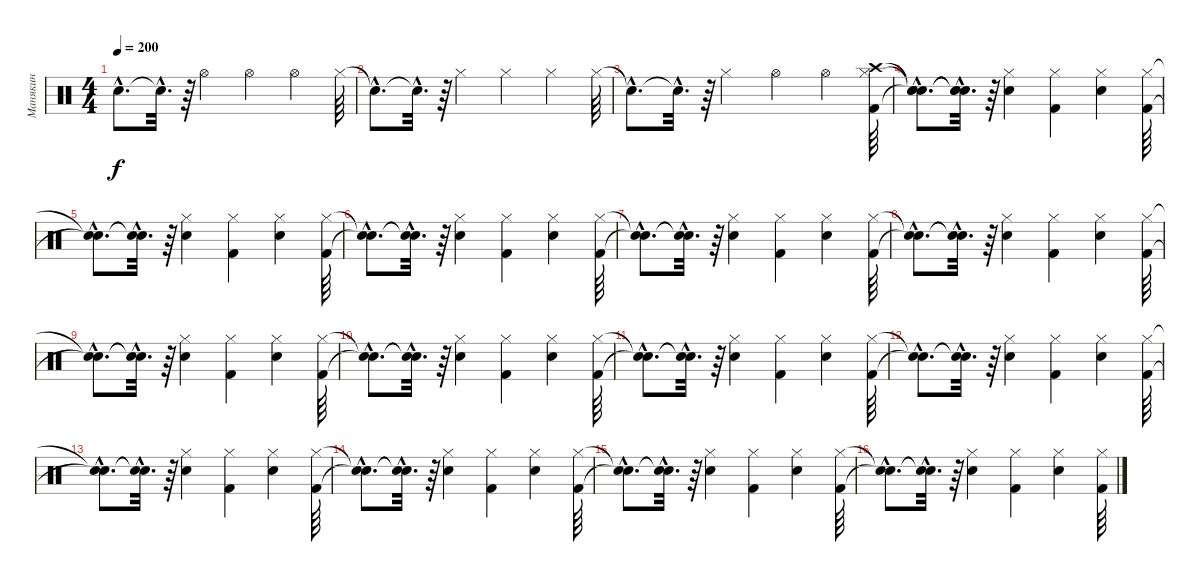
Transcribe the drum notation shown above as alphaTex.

\track ("Манякин" "Манякин") {instrument percussion}
\staff {score}
\articulation defaults
\ts (4 4)
\tempo 200
\clef neutral
\ks c "Snare (hit)"{hac t}.8{d dy f} "Snare (hit)"{hac t}.32{d}
r.64 "Hi-Hat (open)".4 "Hi-Hat (open)".4 "Hi-Hat (open)".4 "Hi-Hat (closed)".64 |
"Snare (hit)"{hac t}.8{d} "Snare (hit)"{hac t}.32{d} r.64 "Hi-Hat (closed)".4 "Hi-Hat (closed)".4 "Hi-Hat (closed)".4 "Hi-Hat (closed)".64 |
"Snare (hit)"{hac t}.8{d} "Snare (hit)"{hac t}.32{d} r.64 "Hi-Hat (closed)".4 "Hi-Hat (open)".4 "Hi-Hat (open)".4 ("Crash high (hit)" "Hi-Hat (closed)" "Kick (hit) 2").64 |
("Snare (hit)"{hac t} "Snare (hit)"{hac t} "Snare (hit)"{hac t}).8{d} ("Snare (hit)"{hac t} "Snare (hit)"{hac t} "Snare (hit)"{hac t}).32{d} r.64 ("Hi-Hat (closed)" "Snare (hit) 2").4 ("Hi-Hat (closed)" "Kick (hit) 2").4 ("Hi-Hat (closed)" "Snare (hit) 2").4 ("Hi-Hat (closed)" "Kick (hit) 2").64 |
("Snare (hit)"{hac t} "Snare (hit)"{hac t}).8{d} ("Snare (hit)"{hac t} "Snare (hit)"{hac t}).32{d} r.64 ("Hi-Hat (closed)" "Snare (hit) 2").4 ("Hi-Hat (closed)" "Kick (hit) 2").4 ("Hi-Hat (closed)" "Snare (hit) 2").4 ("Hi-Hat (closed)" "Kick (hit) 2").64 |
("Snare (hit)"{hac t} "Snare (hit)"{hac t}).8{d} ("Snare (hit)"{hac t} "Snare (hit)"{hac t}).32{d} r.64 ("Hi-Hat (closed)" "Snare (hit) 2").4 ("Hi-Hat (closed)" "Kick (hit) 2").4 ("Hi-Hat (closed)" "Snare (hit) 2").4 ("Hi-Hat (closed)" "Kick (hit) 2").64 |
("Snare (hit)"{hac t} "Snare (hit)"{hac t}).8{d} ("Snare (hit)"{hac t} "Snare (hit)"{hac t}).32{d} r.64 ("Hi-Hat (closed)" "Snare (hit) 2").4 ("Hi-Hat (closed)" "Kick (hit) 2").4 ("Hi-Hat (closed)" "Snare (hit) 2").4 ("Hi-Hat (closed)" "Kick (hit) 2").64 |
("Snare (hit)"{hac t} "Snare (hit)"{hac t}).8{d} ("Snare (hit)"{hac t} "Snare (hit)"{hac t}).32{d} r.64 ("Hi-Hat (closed)" "Snare (hit) 2").4 ("Hi-Hat (closed)" "Kick (hit) 2").4 ("Hi-Hat (closed)" "Snare (hit) 2").4 ("Hi-Hat (closed)" "Kick (hit) 2").64 |
("Snare (hit)"{hac t} "Snare (hit)"{hac t}).8{d} ("Snare (hit)"{hac t} "Snare (hit)"{hac t}).32{d} r.64 ("Hi-Hat (closed)" "Snare (hit) 2").4 ("Hi-Hat (closed)" "Kick (hit) 2").4 ("Hi-Hat (closed)" "Snare (hit) 2").4 ("Hi-Hat (closed)" "Kick (hit) 2").64 |
("Snare (hit)"{hac t} "Snare (hit)"{hac t}).8{d} ("Snare (hit)"{hac t} "Snare (hit)"{hac t}).32{d} r.64 ("Hi-Hat (closed)" "Snare (hit) 2").4 ("Hi-Hat (closed)" "Kick (hit) 2").4 ("Hi-Hat (closed)" "Snare (hit) 2").4 ("Hi-Hat (closed)" "Kick (hit) 2").64 |
("Snare (hit)"{hac t} "Snare (hit)"{hac t}).8{d} ("Snare (hit)"{hac t} "Snare (hit)"{hac t}).32{d} r.64 ("Hi-Hat (closed)" "Snare (hit) 2").4 ("Hi-Hat (closed)" "Kick (hit) 2").4 ("Hi-Hat (closed)" "Snare (hit) 2").4 ("Hi-Hat (closed)" "Kick (hit) 2").64 |
("Snare (hit)"{hac t} "Snare (hit)"{hac t}).8{d} ("Snare (hit)"{hac t} "Snare (hit)"{hac t}).32{d} r.64 ("Hi-Hat (closed)" "Snare (hit) 2").4 ("Hi-Hat (closed)" "Kick (hit) 2").4 ("Hi-Hat (closed)" "Snare (hit) 2").4 ("Hi-Hat (closed)" "Kick (hit) 2").64 |
("Snare (hit)"{hac t} "Snare (hit)"{hac t}).8{d} ("Snare (hit)"{hac t} "Snare (hit)"{hac t}).32{d} r.64 ("Hi-Hat (closed)" "Snare (hit) 2").4 ("Hi-Hat (closed)" "Kick (hit) 2").4 ("Hi-Hat (closed)" "Snare (hit) 2").4 ("Hi-Hat (closed)" "Kick (hit) 2").64 |
("Snare (hit)"{hac t} "Snare (hit)"{hac t}).8{d} ("Snare (hit)"{hac t} "Snare (hit)"{hac t}).32{d} r.64 ("Hi-Hat (closed)" "Snare (hit) 2").4 ("Hi-Hat (closed)" "Kick (hit) 2").4 ("Hi-Hat (closed)" "Snare (hit) 2").4 ("Hi-Hat (closed)" "Kick (hit) 2").64 |
("Snare (hit)"{hac t} "Snare (hit)"{hac t}).8{d} ("Snare (hit)"{hac t} "Snare (hit)"{hac t}).32{d} r.64 ("Hi-Hat (closed)" "Snare (hit) 2").4 ("Hi-Hat (closed)" "Kick (hit) 2").4 ("Hi-Hat (closed)" "Snare (hit) 2").4 ("Hi-Hat (closed)" "Kick (hit) 2").64 |
("Snare (hit)"{hac t} "Snare (hit)"{hac t}).8{d} ("Snare (hit)"{hac t} "Snare (hit)"{hac t}).32{d} r.64 ("Hi-Hat (closed)" "Snare (hit) 2").4 ("Hi-Hat (closed)" "Kick (hit) 2").4 ("Hi-Hat (closed)" "Snare (hit) 2").4 ("Hi-Hat (closed)" "Kick (hit) 2").64
